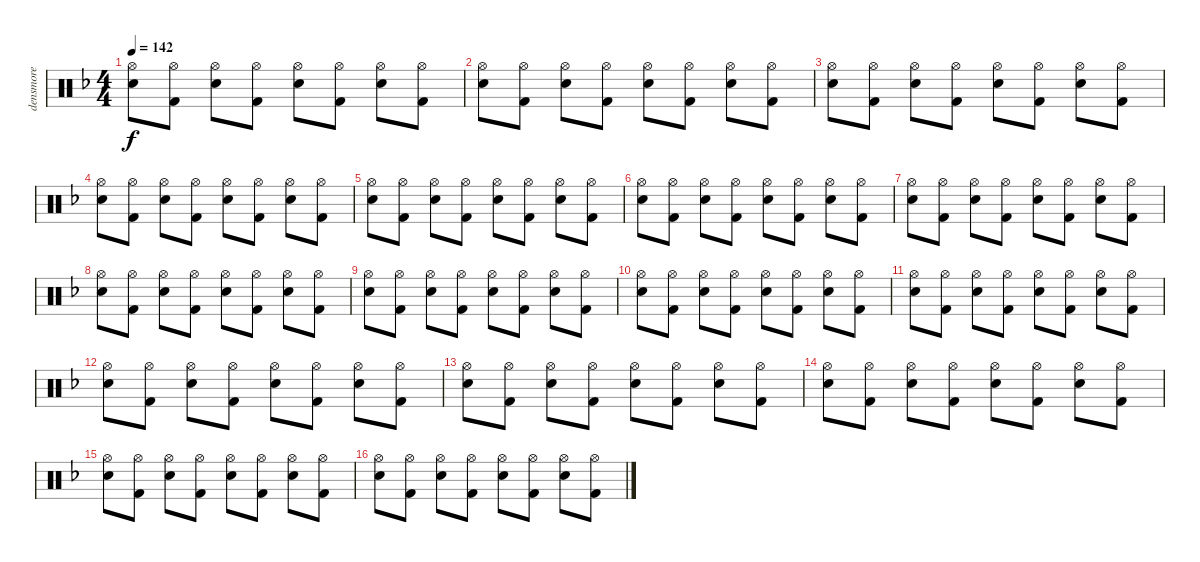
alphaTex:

\track ("densmore" "densmore") {instrument percussion}
\staff {score}
\articulation defaults
\ts (4 4)
\tempo 142
\clef neutral
\ks f
("Hi-Hat (open)" "Electric Snare (hit)").8{dy f} ("Hi-Hat (open)" "Kick (hit) 2").8 ("Hi-Hat (open)" "Electric Snare (hit)").8 ("Hi-Hat (open)" "Kick (hit) 2").8 ("Hi-Hat (open)" "Electric Snare (hit)").8 ("Hi-Hat (open)" "Kick (hit) 2").8 ("Hi-Hat (open)" "Electric Snare (hit)").8 ("Hi-Hat (open)" "Kick (hit) 2").8 |
("Hi-Hat (open)" "Electric Snare (hit)").8 ("Hi-Hat (open)" "Kick (hit) 2").8 ("Hi-Hat (open)" "Electric Snare (hit)").8 ("Hi-Hat (open)" "Kick (hit) 2").8 ("Hi-Hat (open)" "Electric Snare (hit)").8 ("Hi-Hat (open)" "Kick (hit) 2").8 ("Hi-Hat (open)" "Electric Snare (hit)").8 ("Hi-Hat (open)" "Kick (hit) 2").8 |
("Hi-Hat (open)" "Electric Snare (hit)").8 ("Hi-Hat (open)" "Kick (hit) 2").8 ("Hi-Hat (open)" "Electric Snare (hit)").8 ("Hi-Hat (open)" "Kick (hit) 2").8 ("Hi-Hat (open)" "Electric Snare (hit)").8 ("Hi-Hat (open)" "Kick (hit) 2").8 ("Hi-Hat (open)" "Electric Snare (hit)").8 ("Hi-Hat (open)" "Kick (hit) 2").8 |
("Hi-Hat (open)" "Electric Snare (hit)").8 ("Hi-Hat (open)" "Kick (hit) 2").8 ("Hi-Hat (open)" "Electric Snare (hit)").8 ("Hi-Hat (open)" "Kick (hit) 2").8 ("Hi-Hat (open)" "Electric Snare (hit)").8 ("Hi-Hat (open)" "Kick (hit) 2").8 ("Hi-Hat (open)" "Electric Snare (hit)").8 ("Hi-Hat (open)" "Kick (hit) 2").8 |
("Hi-Hat (open)" "Electric Snare (hit)").8 ("Hi-Hat (open)" "Kick (hit) 2").8 ("Hi-Hat (open)" "Electric Snare (hit)").8 ("Hi-Hat (open)" "Kick (hit) 2").8 ("Hi-Hat (open)" "Electric Snare (hit)").8 ("Hi-Hat (open)" "Kick (hit) 2").8 ("Hi-Hat (open)" "Electric Snare (hit)").8 ("Hi-Hat (open)" "Kick (hit) 2").8 |
("Hi-Hat (open)" "Electric Snare (hit)").8 ("Hi-Hat (open)" "Kick (hit) 2").8 ("Hi-Hat (open)" "Electric Snare (hit)").8 ("Hi-Hat (open)" "Kick (hit) 2").8 ("Hi-Hat (open)" "Electric Snare (hit)").8 ("Hi-Hat (open)" "Kick (hit) 2").8 ("Hi-Hat (open)" "Electric Snare (hit)").8 ("Hi-Hat (open)" "Kick (hit) 2").8 |
("Hi-Hat (open)" "Electric Snare (hit)").8 ("Hi-Hat (open)" "Kick (hit) 2").8 ("Hi-Hat (open)" "Electric Snare (hit)").8 ("Hi-Hat (open)" "Kick (hit) 2").8 ("Hi-Hat (open)" "Electric Snare (hit)").8 ("Hi-Hat (open)" "Kick (hit) 2").8 ("Hi-Hat (open)" "Electric Snare (hit)").8 ("Hi-Hat (open)" "Kick (hit) 2").8 |
("Hi-Hat (open)" "Electric Snare (hit)").8 ("Hi-Hat (open)" "Kick (hit) 2").8 ("Hi-Hat (open)" "Electric Snare (hit)").8 ("Hi-Hat (open)" "Kick (hit) 2").8 ("Hi-Hat (open)" "Electric Snare (hit)").8 ("Hi-Hat (open)" "Kick (hit) 2").8 ("Hi-Hat (open)" "Electric Snare (hit)").8 ("Hi-Hat (open)" "Kick (hit) 2").8 |
("Hi-Hat (open)" "Electric Snare (hit)").8 ("Hi-Hat (open)" "Kick (hit) 2").8 ("Hi-Hat (open)" "Electric Snare (hit)").8 ("Hi-Hat (open)" "Kick (hit) 2").8 ("Hi-Hat (open)" "Electric Snare (hit)").8 ("Hi-Hat (open)" "Kick (hit) 2").8 ("Hi-Hat (open)" "Electric Snare (hit)").8 ("Hi-Hat (open)" "Kick (hit) 2").8 |
("Hi-Hat (open)" "Electric Snare (hit)").8 ("Hi-Hat (open)" "Kick (hit) 2").8 ("Hi-Hat (open)" "Electric Snare (hit)").8 ("Hi-Hat (open)" "Kick (hit) 2").8 ("Hi-Hat (open)" "Electric Snare (hit)").8 ("Hi-Hat (open)" "Kick (hit) 2").8 ("Hi-Hat (open)" "Electric Snare (hit)").8 ("Hi-Hat (open)" "Kick (hit) 2").8 |
("Hi-Hat (open)" "Electric Snare (hit)").8 ("Hi-Hat (open)" "Kick (hit) 2").8 ("Hi-Hat (open)" "Electric Snare (hit)").8 ("Hi-Hat (open)" "Kick (hit) 2").8 ("Hi-Hat (open)" "Electric Snare (hit)").8 ("Hi-Hat (open)" "Kick (hit) 2").8 ("Hi-Hat (open)" "Electric Snare (hit)").8 ("Hi-Hat (open)" "Kick (hit) 2").8 |
("Hi-Hat (open)" "Electric Snare (hit)").8 ("Hi-Hat (open)" "Kick (hit) 2").8 ("Hi-Hat (open)" "Electric Snare (hit)").8 ("Hi-Hat (open)" "Kick (hit) 2").8 ("Hi-Hat (open)" "Electric Snare (hit)").8 ("Hi-Hat (open)" "Kick (hit) 2").8 ("Hi-Hat (open)" "Electric Snare (hit)").8 ("Hi-Hat (open)" "Kick (hit) 2").8 |
("Hi-Hat (open)" "Electric Snare (hit)").8 ("Hi-Hat (open)" "Kick (hit) 2").8 ("Hi-Hat (open)" "Electric Snare (hit)").8 ("Hi-Hat (open)" "Kick (hit) 2").8 ("Hi-Hat (open)" "Electric Snare (hit)").8 ("Hi-Hat (open)" "Kick (hit) 2").8 ("Hi-Hat (open)" "Electric Snare (hit)").8 ("Hi-Hat (open)" "Kick (hit) 2").8 |
("Hi-Hat (open)" "Electric Snare (hit)").8 ("Hi-Hat (open)" "Kick (hit) 2").8 ("Hi-Hat (open)" "Electric Snare (hit)").8 ("Hi-Hat (open)" "Kick (hit) 2").8 ("Hi-Hat (open)" "Electric Snare (hit)").8 ("Hi-Hat (open)" "Kick (hit) 2").8 ("Hi-Hat (open)" "Electric Snare (hit)").8 ("Hi-Hat (open)" "Kick (hit) 2").8 |
("Hi-Hat (open)" "Electric Snare (hit)").8 ("Hi-Hat (open)" "Kick (hit) 2").8 ("Hi-Hat (open)" "Electric Snare (hit)").8 ("Hi-Hat (open)" "Kick (hit) 2").8 ("Hi-Hat (open)" "Electric Snare (hit)").8 ("Hi-Hat (open)" "Kick (hit) 2").8 ("Hi-Hat (open)" "Electric Snare (hit)").8 ("Hi-Hat (open)" "Kick (hit) 2").8 |
("Hi-Hat (open)" "Electric Snare (hit)").8 ("Hi-Hat (open)" "Kick (hit) 2").8 ("Hi-Hat (open)" "Electric Snare (hit)").8 ("Hi-Hat (open)" "Kick (hit) 2").8 ("Hi-Hat (open)" "Electric Snare (hit)").8 ("Hi-Hat (open)" "Kick (hit) 2").8 ("Hi-Hat (open)" "Electric Snare (hit)").8 ("Hi-Hat (open)" "Kick (hit) 2").8
